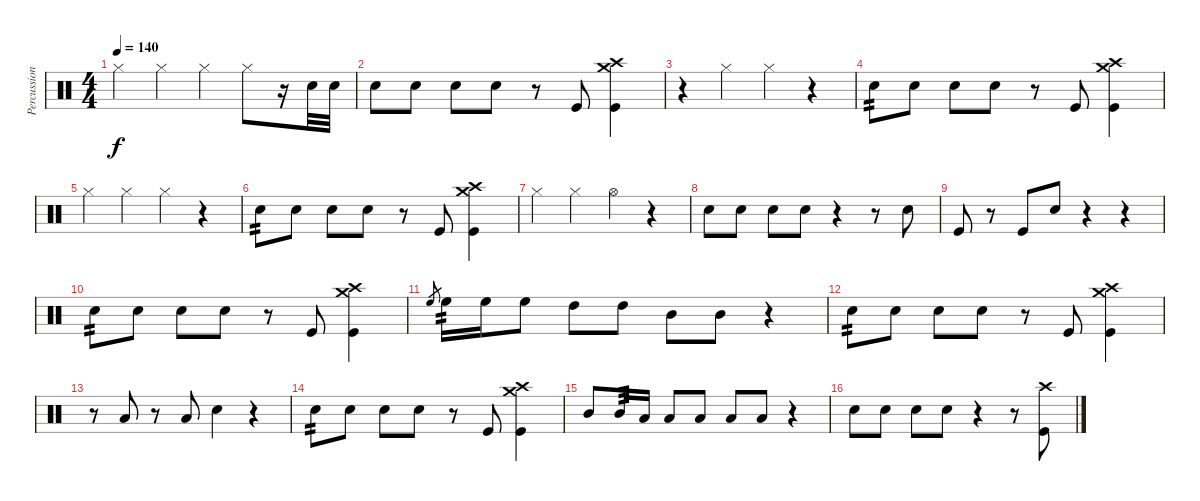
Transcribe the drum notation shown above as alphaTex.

\track ("Percussioni" "Percussion") {instrument percussion}
\staff {score}
\articulation defaults
\ts (4 4)
\tempo 140
\clef neutral
\ks c "Hi-Hat (closed)".4{dy f} "Hi-Hat (closed)".4 "Hi-Hat (closed)".4 "Hi-Hat (closed)".8
r.16 "Snare (hit) 2".32 "Snare (hit) 2".32 |
"Snare (hit) 2".8 "Snare (hit) 2".8 "Snare (hit) 2".8 "Snare (hit) 2".8 r.8 "Kick (hit)".8 ("Crash high (hit)" "Crash medium (hit)" "Kick (hit)").4 |
r.4 "Hi-Hat (closed)".4 "Hi-Hat (closed)".4 r.4 |
"Snare (hit) 2".8{tp 2} "Snare (hit) 2".8 "Snare (hit) 2".8 "Snare (hit) 2".8 r.8 "Kick (hit)".8 ("Crash high (hit)" "Crash medium (hit)" "Kick (hit)").4 |
"Hi-Hat (closed)".4 "Hi-Hat (closed)".4 "Hi-Hat (closed)".4 r.4 |
"Snare (hit) 2".8{tp 2} "Snare (hit) 2".8 "Snare (hit) 2".8 "Snare (hit) 2".8 r.8 "Kick (hit)".8 ("Crash high (hit)" "Crash medium (hit)" "Kick (hit)").4 |
"Hi-Hat (closed)".4 "Hi-Hat (closed)".4 "Hi-Hat (open)".4 r.4 |
"Snare (hit) 2".8 "Snare (hit) 2".8 "Snare (hit) 2".8 "Snare (hit) 2".8 r.4 r.8 "Snare (hit) 2".8 |
"Kick (hit)".8 r.8 "Kick (hit)".8 "Snare (hit) 2".8 r.4 r.4 |
"Snare (hit) 2".8{tp 2} "Snare (hit) 2".8 "Snare (hit) 2".8 "Snare (hit) 2".8 r.8 "Kick (hit)".8 ("Crash high (hit)" "Crash medium (hit)" "Kick (hit)").4 |
"High Floor Tom (hit)".8{gr} "High Floor Tom (hit)".16{tp 2} "High Floor Tom (hit)".16 "High Floor Tom (hit)".8 "High Tom (hit)".8 "High Tom (hit)".8 "Mid Tom (hit)".8 "Mid Tom (hit)".8 r.4 |
"Snare (hit) 2".8{tp 2} "Snare (hit) 2".8 "Snare (hit) 2".8 "Snare (hit) 2".8 r.8 "Kick (hit)".8 ("Crash high (hit)" "Crash medium (hit)" "Kick (hit)").4 |
r.8 "Low Tom (hit)".8 r.8 "Low Tom (hit)".8 "Snare (hit) 2".4 r.4 |
"Snare (hit) 2".8{tp 2} "Snare (hit) 2".8 "Snare (hit) 2".8 "Snare (hit) 2".8 r.8 "Kick (hit)".8 ("Crash high (hit)" "Crash medium (hit)" "Kick (hit)").4 |
"Mid Tom (hit)".8 "Mid Tom (hit)".16{tp 3} "Low Tom (hit)".16 "Low Tom (hit)".8 "Low Tom (hit)".8 "Low Floor Tom (hit)".8 "Low Floor Tom (hit)".8 r.4 |
"Snare (hit) 2".8 "Snare (hit) 2".8 "Snare (hit) 2".8 "Snare (hit) 2".8 r.4 r.8 ("Crash high (hit)" "Kick (hit)").8
